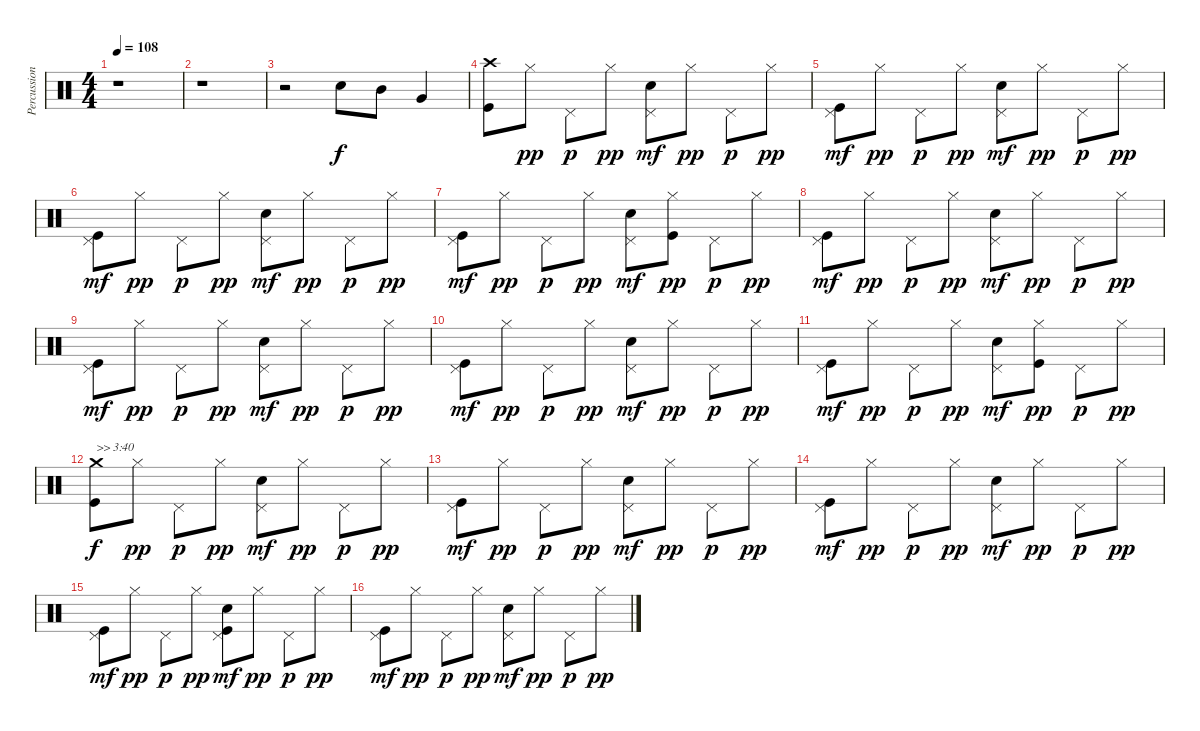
\track ("Percussion" "Percussion") {instrument percussion}
\staff {score}
\articulation defaults
\ts (4 4)
\tempo 108
\clef neutral
\ks c
r.1{dy f} |
r.1 |
r.2 "Electric Snare (hit)".8 "Mid Tom (hit)".8 "Very Low Tom (hit)".4 |
("Kick (hit)" "Crash high (hit)").8 "Hi-Hat (closed)".8{dy pp} "Pedal Hi-Hat (hit)".8{dy p} "Hi-Hat (closed)".8{dy pp} ("Electric Snare (hit)" "Pedal Hi-Hat (hit)").8{dy mf} "Hi-Hat (closed)".8{dy pp} "Pedal Hi-Hat (hit)".8{dy p} "Hi-Hat (closed)".8{dy pp} |
("Kick (hit)" "Pedal Hi-Hat (hit)").8{dy mf} "Hi-Hat (closed)".8{dy pp} "Pedal Hi-Hat (hit)".8{dy p} "Hi-Hat (closed)".8{dy pp} ("Electric Snare (hit)" "Pedal Hi-Hat (hit)").8{dy mf} "Hi-Hat (closed)".8{dy pp} "Pedal Hi-Hat (hit)".8{dy p} "Hi-Hat (closed)".8{dy pp} |
("Kick (hit)" "Pedal Hi-Hat (hit)").8{dy mf} "Hi-Hat (closed)".8{dy pp} "Pedal Hi-Hat (hit)".8{dy p} "Hi-Hat (closed)".8{dy pp} ("Electric Snare (hit)" "Pedal Hi-Hat (hit)").8{dy mf} "Hi-Hat (closed)".8{dy pp} "Pedal Hi-Hat (hit)".8{dy p} "Hi-Hat (closed)".8{dy pp} |
("Kick (hit)" "Pedal Hi-Hat (hit)").8{dy mf} "Hi-Hat (closed)".8{dy pp} "Pedal Hi-Hat (hit)".8{dy p} "Hi-Hat (closed)".8{dy pp} ("Electric Snare (hit)" "Pedal Hi-Hat (hit)").8{dy mf} ("Kick (hit)" "Hi-Hat (closed)").8{dy pp} "Pedal Hi-Hat (hit)".8{dy p} "Hi-Hat (closed)".8{dy pp} |
("Kick (hit)" "Pedal Hi-Hat (hit)").8{dy mf} "Hi-Hat (closed)".8{dy pp} "Pedal Hi-Hat (hit)".8{dy p} "Hi-Hat (closed)".8{dy pp} ("Electric Snare (hit)" "Pedal Hi-Hat (hit)").8{dy mf} "Hi-Hat (closed)".8{dy pp} "Pedal Hi-Hat (hit)".8{dy p} "Hi-Hat (closed)".8{dy pp} |
("Kick (hit)" "Pedal Hi-Hat (hit)").8{dy mf} "Hi-Hat (closed)".8{dy pp} "Pedal Hi-Hat (hit)".8{dy p} "Hi-Hat (closed)".8{dy pp} ("Electric Snare (hit)" "Pedal Hi-Hat (hit)").8{dy mf} "Hi-Hat (closed)".8{dy pp} "Pedal Hi-Hat (hit)".8{dy p} "Hi-Hat (closed)".8{dy pp} |
("Kick (hit)" "Pedal Hi-Hat (hit)").8{dy mf} "Hi-Hat (closed)".8{dy pp} "Pedal Hi-Hat (hit)".8{dy p} "Hi-Hat (closed)".8{dy pp} ("Electric Snare (hit)" "Pedal Hi-Hat (hit)").8{dy mf} "Hi-Hat (closed)".8{dy pp} "Pedal Hi-Hat (hit)".8{dy p} "Hi-Hat (closed)".8{dy pp} |
("Kick (hit)" "Pedal Hi-Hat (hit)").8{dy mf} "Hi-Hat (closed)".8{dy pp} "Pedal Hi-Hat (hit)".8{dy p} "Hi-Hat (closed)".8{dy pp} ("Electric Snare (hit)" "Pedal Hi-Hat (hit)").8{dy mf} ("Kick (hit)" "Hi-Hat (closed)").8{dy pp} "Pedal Hi-Hat (hit)".8{dy p} "Hi-Hat (closed)".8{dy pp} |
("Kick (hit)" "Crash medium (hit)").8{txt ">> 3:40" dy f} "Hi-Hat (closed)".8{dy pp} "Pedal Hi-Hat (hit)".8{dy p} "Hi-Hat (closed)".8{dy pp} ("Electric Snare (hit)" "Pedal Hi-Hat (hit)").8{dy mf} "Hi-Hat (closed)".8{dy pp} "Pedal Hi-Hat (hit)".8{dy p} "Hi-Hat (closed)".8{dy pp} |
("Kick (hit)" "Pedal Hi-Hat (hit)").8{dy mf} "Hi-Hat (closed)".8{dy pp} "Pedal Hi-Hat (hit)".8{dy p} "Hi-Hat (closed)".8{dy pp} ("Electric Snare (hit)" "Pedal Hi-Hat (hit)").8{dy mf} "Hi-Hat (closed)".8{dy pp} "Pedal Hi-Hat (hit)".8{dy p} "Hi-Hat (closed)".8{dy pp} |
("Kick (hit)" "Pedal Hi-Hat (hit)").8{dy mf} "Hi-Hat (closed)".8{dy pp} "Pedal Hi-Hat (hit)".8{dy p} "Hi-Hat (closed)".8{dy pp} ("Electric Snare (hit)" "Pedal Hi-Hat (hit)").8{dy mf} "Hi-Hat (closed)".8{dy pp} "Pedal Hi-Hat (hit)".8{dy p} "Hi-Hat (closed)".8{dy pp} |
("Kick (hit)" "Pedal Hi-Hat (hit)").8{dy mf} "Hi-Hat (closed)".8{dy pp} "Pedal Hi-Hat (hit)".8{dy p} "Hi-Hat (closed)".8{dy pp} ("Electric Snare (hit)" "Kick (hit)" "Pedal Hi-Hat (hit)").8{dy mf} "Hi-Hat (closed)".8{dy pp} "Pedal Hi-Hat (hit)".8{dy p} "Hi-Hat (closed)".8{dy pp} |
("Kick (hit)" "Pedal Hi-Hat (hit)").8{dy mf} "Hi-Hat (closed)".8{dy pp} "Pedal Hi-Hat (hit)".8{dy p} "Hi-Hat (closed)".8{dy pp} ("Electric Snare (hit)" "Pedal Hi-Hat (hit)").8{dy mf} "Hi-Hat (closed)".8{dy pp} "Pedal Hi-Hat (hit)".8{dy p} "Hi-Hat (closed)".8{dy pp}
